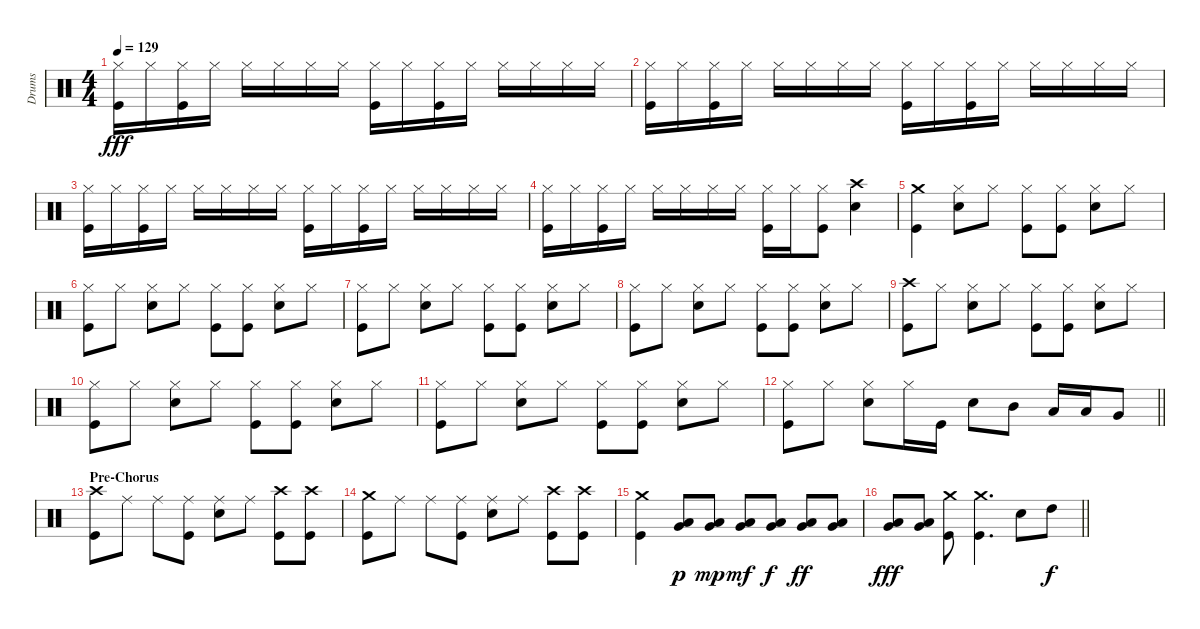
\track ("Drums" "Drums") {instrument percussion}
\staff {score}
\articulation defaults
\ts (4 4)
\tempo 129
\clef neutral
\ks c
("Hi-Hat (closed)" "Kick (hit)").16{dy fff} "Hi-Hat (closed)".16 ("Hi-Hat (closed)" "Kick (hit)").16 "Hi-Hat (closed)".16 "Hi-Hat (closed)".16 "Hi-Hat (closed)".16 "Hi-Hat (closed)".16 "Hi-Hat (closed)".16 ("Hi-Hat (closed)" "Kick (hit)").16 "Hi-Hat (closed)".16 ("Hi-Hat (closed)" "Kick (hit)").16 "Hi-Hat (closed)".16 "Hi-Hat (closed)".16 "Hi-Hat (closed)".16 "Hi-Hat (closed)".16 "Hi-Hat (closed)".16 |
("Hi-Hat (closed)" "Kick (hit)").16 "Hi-Hat (closed)".16 ("Hi-Hat (closed)" "Kick (hit)").16 "Hi-Hat (closed)".16 "Hi-Hat (closed)".16 "Hi-Hat (closed)".16 "Hi-Hat (closed)".16 "Hi-Hat (closed)".16 ("Hi-Hat (closed)" "Kick (hit)").16 "Hi-Hat (closed)".16 ("Hi-Hat (closed)" "Kick (hit)").16 "Hi-Hat (closed)".16 "Hi-Hat (closed)".16 "Hi-Hat (closed)".16 "Hi-Hat (closed)".16 "Hi-Hat (closed)".16 |
("Hi-Hat (closed)" "Kick (hit)").16 "Hi-Hat (closed)".16 ("Hi-Hat (closed)" "Kick (hit)").16 "Hi-Hat (closed)".16 "Hi-Hat (closed)".16 "Hi-Hat (closed)".16 "Hi-Hat (closed)".16 "Hi-Hat (closed)".16 ("Hi-Hat (closed)" "Kick (hit)").16 "Hi-Hat (closed)".16 ("Hi-Hat (closed)" "Kick (hit)").16 "Hi-Hat (closed)".16 "Hi-Hat (closed)".16 "Hi-Hat (closed)".16 "Hi-Hat (closed)".16 "Hi-Hat (closed)".16 |
("Hi-Hat (closed)" "Kick (hit)").16 "Hi-Hat (closed)".16 ("Hi-Hat (closed)" "Kick (hit)").16 "Hi-Hat (closed)".16 "Hi-Hat (closed)".16 "Hi-Hat (closed)".16 "Hi-Hat (closed)".16 "Hi-Hat (closed)".16 ("Hi-Hat (closed)" "Kick (hit)").16 "Hi-Hat (closed)".16 ("Hi-Hat (closed)" "Kick (hit)").8 ("Crash high (hit)" "Snare (hit) 2").4 |
("Crash medium (hit)" "Kick (hit)").4 ("Hi-Hat (closed)" "Snare (hit) 2").8 "Hi-Hat (closed)".8 ("Hi-Hat (closed)" "Kick (hit)").8 ("Hi-Hat (closed)" "Kick (hit)").8 ("Hi-Hat (closed)" "Snare (hit) 2").8 "Hi-Hat (closed)".8 |
("Hi-Hat (closed)" "Kick (hit)").8 "Hi-Hat (closed)".8 ("Hi-Hat (closed)" "Snare (hit) 2").8 "Hi-Hat (closed)".8 ("Hi-Hat (closed)" "Kick (hit)").8 ("Hi-Hat (closed)" "Kick (hit)").8 ("Hi-Hat (closed)" "Snare (hit) 2").8 "Hi-Hat (closed)".8 |
("Hi-Hat (closed)" "Kick (hit)").8 "Hi-Hat (closed)".8 ("Hi-Hat (closed)" "Snare (hit) 2").8 "Hi-Hat (closed)".8 ("Hi-Hat (closed)" "Kick (hit)").8 ("Hi-Hat (closed)" "Kick (hit)").8 ("Hi-Hat (closed)" "Snare (hit) 2").8 "Hi-Hat (closed)".8 |
("Hi-Hat (closed)" "Kick (hit)").8 "Hi-Hat (closed)".8 ("Hi-Hat (closed)" "Snare (hit) 2").8 "Hi-Hat (closed)".8 ("Hi-Hat (closed)" "Kick (hit)").8 ("Hi-Hat (closed)" "Kick (hit)").8 ("Hi-Hat (closed)" "Snare (hit) 2").8 "Hi-Hat (closed)".8 |
("Crash high (hit)" "Kick (hit)").8 "Hi-Hat (closed)".8 ("Hi-Hat (closed)" "Snare (hit) 2").8 "Hi-Hat (closed)".8 ("Hi-Hat (closed)" "Kick (hit)").8 ("Hi-Hat (closed)" "Kick (hit)").8 ("Hi-Hat (closed)" "Snare (hit) 2").8 "Hi-Hat (closed)".8 |
("Hi-Hat (closed)" "Kick (hit)").8 "Hi-Hat (closed)".8 ("Hi-Hat (closed)" "Snare (hit) 2").8 "Hi-Hat (closed)".8 ("Hi-Hat (closed)" "Kick (hit)").8 ("Hi-Hat (closed)" "Kick (hit)").8 ("Hi-Hat (closed)" "Snare (hit) 2").8 "Hi-Hat (closed)".8 |
("Hi-Hat (closed)" "Kick (hit)").8 "Hi-Hat (closed)".8 ("Hi-Hat (closed)" "Snare (hit) 2").8 "Hi-Hat (closed)".8 ("Hi-Hat (closed)" "Kick (hit)").8 ("Hi-Hat (closed)" "Kick (hit)").8 ("Hi-Hat (closed)" "Snare (hit) 2").8 "Hi-Hat (closed)".8 |
\barLineRight lightlight
("Hi-Hat (closed)" "Kick (hit)").8 "Hi-Hat (closed)".8 ("Hi-Hat (closed)" "Snare (hit) 2").8 "Hi-Hat (closed)".16 "Kick (hit)".16 "Snare (hit) 2".8 "Mid Tom (hit)".8 "Low Tom (hit)".16 "Low Tom (hit)".16 "Very Low Tom (hit)".8 |
\section ("" "Pre-Chorus")
("Crash high (hit)" "Kick (hit)").8 "Ride (middle)".8 "Ride (middle)".8 ("Ride (middle)" "Kick (hit)").8 ("Ride (middle)" "Snare (hit) 2").8 "Ride (middle)".8 ("Crash high (hit)" "Kick (hit)").8 ("Crash high (hit)" "Kick (hit)").8 |
("Crash medium (hit)" "Kick (hit)").8 "Ride (middle)".8 "Ride (middle)".8 ("Ride (middle)" "Kick (hit)").8 ("Ride (middle)" "Snare (hit) 2").8 "Ride (middle)".8 ("Crash high (hit)" "Kick (hit)").8 ("Crash high (hit)" "Kick (hit)").8 |
("Crash medium (hit)" "Kick (hit)").4 ("Very Low Tom (hit)" "Low Floor Tom (hit)").8{dy p} ("Very Low Tom (hit)" "Low Floor Tom (hit)").8{dy mp} ("Very Low Tom (hit)" "Low Floor Tom (hit)").8{dy mf} ("Very Low Tom (hit)" "Low Floor Tom (hit)").8{dy f} ("Very Low Tom (hit)" "Low Floor Tom (hit)").8{dy ff} ("Very Low Tom (hit)" "Low Floor Tom (hit)").8 |
\barLineRight lightlight
("Very Low Tom (hit)" "Low Floor Tom (hit)").8{dy fff} ("Very Low Tom (hit)" "Low Floor Tom (hit)").8 ("Crash medium (hit)" "Kick (hit)").8 ("Crash medium (hit)" "Kick (hit)").4{d} "Snare (hit) 2".8 "High Tom (hit)".8{dy f}
